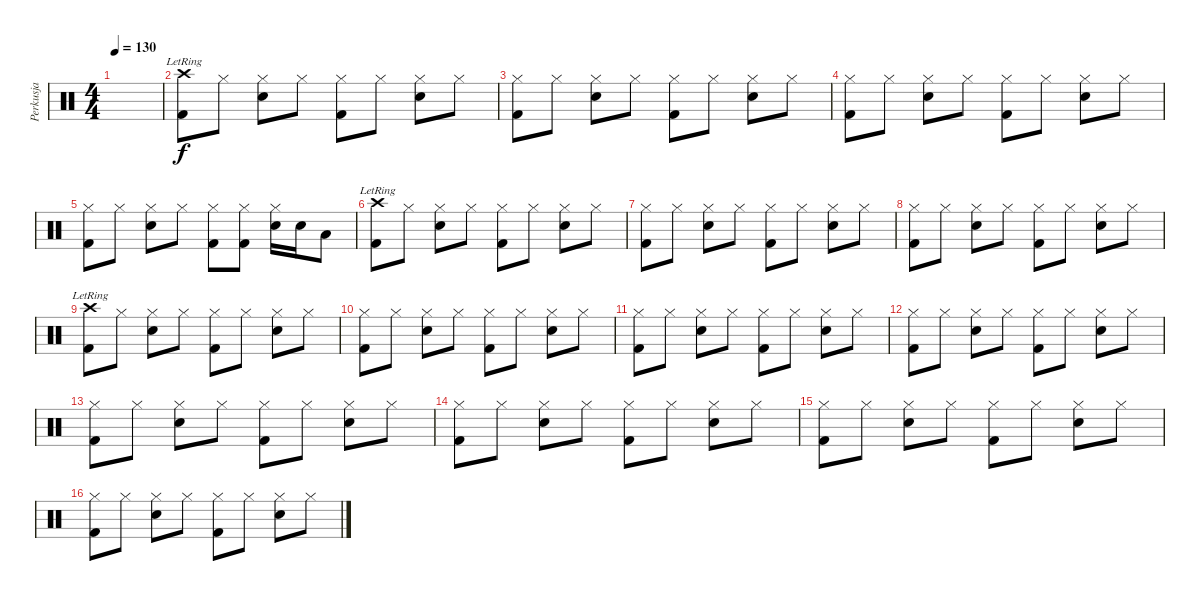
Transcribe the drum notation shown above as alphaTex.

\track ("Perkusja" "Perkusja") {instrument percussion}
\staff {score}
\articulation defaults
\ts (4 4)
\tempo 130
\clef neutral
\ks c
|
("Kick (hit) 2" "Crash high (hit)"{lr}).8 "Hi-Hat (closed)".8 ("Snare (hit) 2" "Hi-Hat (closed)").8 "Hi-Hat (closed)".8 ("Kick (hit) 2" "Hi-Hat (closed)").8 "Hi-Hat (closed)".8 ("Snare (hit) 2" "Hi-Hat (closed)").8 "Hi-Hat (closed)".8 |
("Kick (hit) 2" "Hi-Hat (closed)").8 "Hi-Hat (closed)".8 ("Snare (hit) 2" "Hi-Hat (closed)").8 "Hi-Hat (closed)".8 ("Kick (hit) 2" "Hi-Hat (closed)").8 "Hi-Hat (closed)".8 ("Snare (hit) 2" "Hi-Hat (closed)").8 "Hi-Hat (closed)".8 |
("Kick (hit) 2" "Hi-Hat (closed)").8 "Hi-Hat (closed)".8 ("Snare (hit) 2" "Hi-Hat (closed)").8 "Hi-Hat (closed)".8 ("Kick (hit) 2" "Hi-Hat (closed)").8 "Hi-Hat (closed)".8 ("Snare (hit) 2" "Hi-Hat (closed)").8 "Hi-Hat (closed)".8 |
("Kick (hit) 2" "Hi-Hat (closed)").8 "Hi-Hat (closed)".8 ("Snare (hit) 2" "Hi-Hat (closed)").8 "Hi-Hat (closed)".8 ("Kick (hit) 2" "Hi-Hat (closed)").8 ("Kick (hit) 2" "Hi-Hat (closed)").8 ("Snare (hit) 2" "Hi-Hat (closed)").16 "Snare (hit) 2".16 "Low Tom (hit)".8 |
("Kick (hit) 2" "Crash high (hit)"{lr}).8 "Hi-Hat (closed)".8 ("Snare (hit) 2" "Hi-Hat (closed)").8 "Hi-Hat (closed)".8 ("Kick (hit) 2" "Hi-Hat (closed)").8 "Hi-Hat (closed)".8 ("Snare (hit) 2" "Hi-Hat (closed)").8 "Hi-Hat (closed)".8 |
("Kick (hit) 2" "Hi-Hat (closed)").8 "Hi-Hat (closed)".8 ("Snare (hit) 2" "Hi-Hat (closed)").8 "Hi-Hat (closed)".8 ("Kick (hit) 2" "Hi-Hat (closed)").8 "Hi-Hat (closed)".8 ("Snare (hit) 2" "Hi-Hat (closed)").8 "Hi-Hat (closed)".8 |
("Kick (hit) 2" "Hi-Hat (closed)").8 "Hi-Hat (closed)".8 ("Snare (hit) 2" "Hi-Hat (closed)").8 "Hi-Hat (closed)".8 ("Kick (hit) 2" "Hi-Hat (closed)").8 "Hi-Hat (closed)".8 ("Snare (hit) 2" "Hi-Hat (closed)").8 "Hi-Hat (closed)".8 |
("Kick (hit) 2" "Crash high (hit)"{lr}).8 "Hi-Hat (closed)".8 ("Snare (hit) 2" "Hi-Hat (closed)").8 "Hi-Hat (closed)".8 ("Kick (hit) 2" "Hi-Hat (closed)").8 "Hi-Hat (closed)".8 ("Snare (hit) 2" "Hi-Hat (closed)").8 "Hi-Hat (closed)".8 |
("Kick (hit) 2" "Hi-Hat (closed)").8 "Hi-Hat (closed)".8 ("Snare (hit) 2" "Hi-Hat (closed)").8 "Hi-Hat (closed)".8 ("Kick (hit) 2" "Hi-Hat (closed)").8 "Hi-Hat (closed)".8 ("Snare (hit) 2" "Hi-Hat (closed)").8 "Hi-Hat (closed)".8 |
("Kick (hit) 2" "Hi-Hat (closed)").8 "Hi-Hat (closed)".8 ("Snare (hit) 2" "Hi-Hat (closed)").8 "Hi-Hat (closed)".8 ("Kick (hit) 2" "Hi-Hat (closed)").8 "Hi-Hat (closed)".8 ("Snare (hit) 2" "Hi-Hat (closed)").8 "Hi-Hat (closed)".8 |
("Kick (hit) 2" "Hi-Hat (closed)").8 "Hi-Hat (closed)".8 ("Snare (hit) 2" "Hi-Hat (closed)").8 "Hi-Hat (closed)".8 ("Kick (hit) 2" "Hi-Hat (closed)").8 "Hi-Hat (closed)".8 ("Snare (hit) 2" "Hi-Hat (closed)").8 "Hi-Hat (closed)".8 |
("Kick (hit) 2" "Hi-Hat (closed)").8 "Hi-Hat (closed)".8 ("Snare (hit) 2" "Hi-Hat (closed)").8 "Hi-Hat (closed)".8 ("Kick (hit) 2" "Hi-Hat (closed)").8 "Hi-Hat (closed)".8 ("Snare (hit) 2" "Hi-Hat (closed)").8 "Hi-Hat (closed)".8 |
("Kick (hit) 2" "Hi-Hat (closed)").8 "Hi-Hat (closed)".8 ("Snare (hit) 2" "Hi-Hat (closed)").8 "Hi-Hat (closed)".8 ("Kick (hit) 2" "Hi-Hat (closed)").8 "Hi-Hat (closed)".8 ("Snare (hit) 2" "Hi-Hat (closed)").8 "Hi-Hat (closed)".8 |
("Kick (hit) 2" "Hi-Hat (closed)").8 "Hi-Hat (closed)".8 ("Snare (hit) 2" "Hi-Hat (closed)").8 "Hi-Hat (closed)".8 ("Kick (hit) 2" "Hi-Hat (closed)").8 "Hi-Hat (closed)".8 ("Snare (hit) 2" "Hi-Hat (closed)").8 "Hi-Hat (closed)".8 |
("Kick (hit) 2" "Hi-Hat (closed)").8 "Hi-Hat (closed)".8 ("Snare (hit) 2" "Hi-Hat (closed)").8 "Hi-Hat (closed)".8 ("Kick (hit) 2" "Hi-Hat (closed)").8 "Hi-Hat (closed)".8 ("Snare (hit) 2" "Hi-Hat (closed)").8 "Hi-Hat (closed)".8
